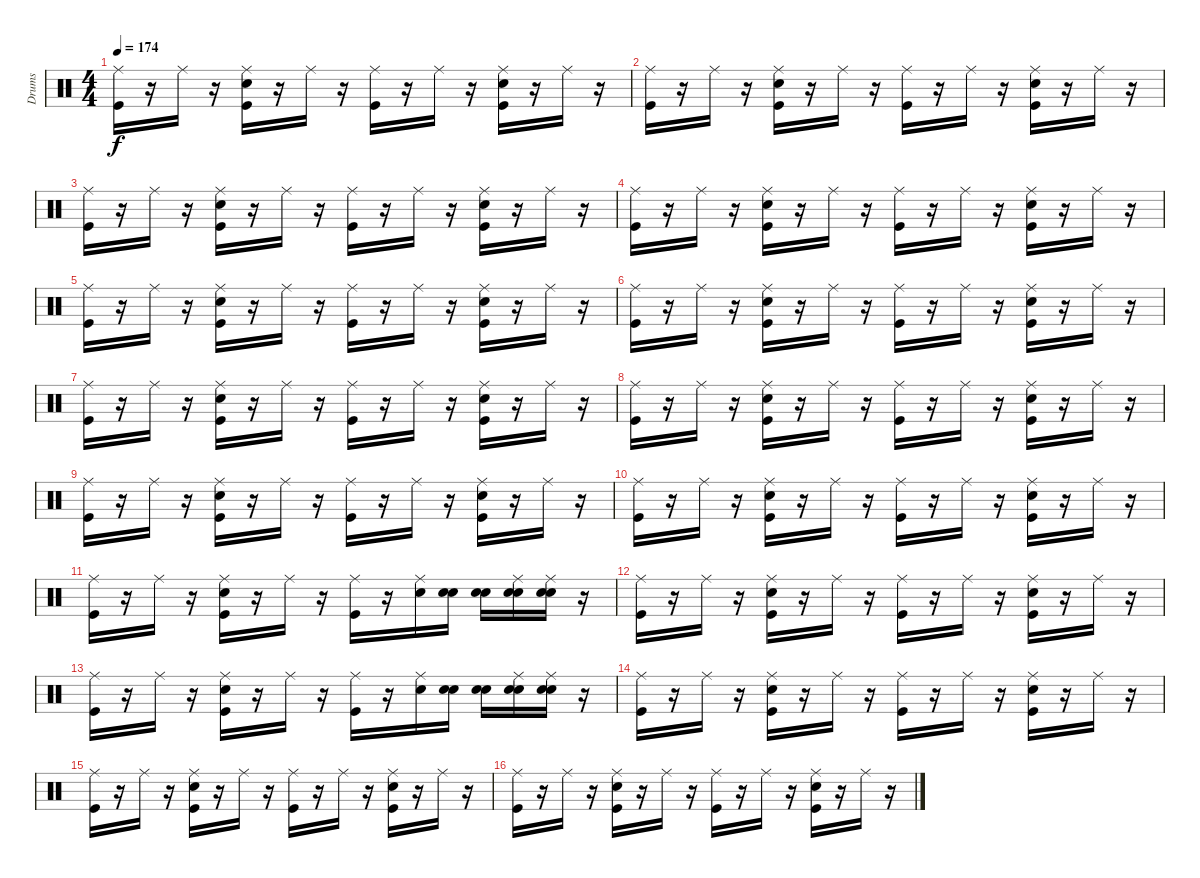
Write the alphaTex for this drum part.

\track ("Drums" "Drums") {instrument percussion}
\staff {score}
\articulation defaults
\ts (4 4)
\tempo 174
\clef neutral
\ks c
("Kick (hit)" "Ride (middle)").16{dy f} r.16 "Ride (middle)".16 r.16 ("Kick (hit)" "Snare (hit) 2" "Ride (middle)").16 r.16 "Ride (middle)".16 r.16 ("Kick (hit)" "Ride (middle)").16 r.16 "Ride (middle)".16 r.16 ("Kick (hit)" "Snare (hit) 2" "Ride (middle)").16 r.16 "Ride (middle)".16 r.16 |
("Kick (hit)" "Ride (middle)").16 r.16 "Ride (middle)".16 r.16 ("Kick (hit)" "Snare (hit) 2" "Ride (middle)").16 r.16 "Ride (middle)".16 r.16 ("Kick (hit)" "Ride (middle)").16 r.16 "Ride (middle)".16 r.16 ("Kick (hit)" "Snare (hit) 2" "Ride (middle)").16 r.16 "Ride (middle)".16 r.16 |
("Kick (hit)" "Ride (middle)").16 r.16 "Ride (middle)".16 r.16 ("Kick (hit)" "Snare (hit) 2" "Ride (middle)").16 r.16 "Ride (middle)".16 r.16 ("Kick (hit)" "Ride (middle)").16 r.16 "Ride (middle)".16 r.16 ("Kick (hit)" "Snare (hit) 2" "Ride (middle)").16 r.16 "Ride (middle)".16 r.16 |
("Kick (hit)" "Ride (middle)").16 r.16 "Ride (middle)".16 r.16 ("Kick (hit)" "Snare (hit) 2" "Ride (middle)").16 r.16 "Ride (middle)".16 r.16 ("Kick (hit)" "Ride (middle)").16 r.16 "Ride (middle)".16 r.16 ("Kick (hit)" "Snare (hit) 2" "Ride (middle)").16 r.16 "Ride (middle)".16 r.16 |
("Kick (hit)" "Ride (middle)").16 r.16 "Ride (middle)".16 r.16 ("Kick (hit)" "Snare (hit) 2" "Ride (middle)").16 r.16 "Ride (middle)".16 r.16 ("Kick (hit)" "Ride (middle)").16 r.16 "Ride (middle)".16 r.16 ("Kick (hit)" "Snare (hit) 2" "Ride (middle)").16 r.16 "Ride (middle)".16 r.16 |
("Kick (hit)" "Ride (middle)").16 r.16 "Ride (middle)".16 r.16 ("Kick (hit)" "Snare (hit) 2" "Ride (middle)").16 r.16 "Ride (middle)".16 r.16 ("Kick (hit)" "Ride (middle)").16 r.16 "Ride (middle)".16 r.16 ("Kick (hit)" "Snare (hit) 2" "Ride (middle)").16 r.16 "Ride (middle)".16 r.16 |
("Kick (hit)" "Ride (middle)").16 r.16 "Ride (middle)".16 r.16 ("Kick (hit)" "Snare (hit) 2" "Ride (middle)").16 r.16 "Ride (middle)".16 r.16 ("Kick (hit)" "Ride (middle)").16 r.16 "Ride (middle)".16 r.16 ("Kick (hit)" "Snare (hit) 2" "Ride (middle)").16 r.16 "Ride (middle)".16 r.16 |
("Kick (hit)" "Ride (middle)").16 r.16 "Ride (middle)".16 r.16 ("Kick (hit)" "Snare (hit) 2" "Ride (middle)").16 r.16 "Ride (middle)".16 r.16 ("Kick (hit)" "Ride (middle)").16 r.16 "Ride (middle)".16 r.16 ("Kick (hit)" "Snare (hit) 2" "Ride (middle)").16 r.16 "Ride (middle)".16 r.16 |
("Kick (hit)" "Ride (middle)").16 r.16 "Ride (middle)".16 r.16 ("Kick (hit)" "Snare (hit) 2" "Ride (middle)").16 r.16 "Ride (middle)".16 r.16 ("Kick (hit)" "Ride (middle)").16 r.16 "Ride (middle)".16 r.16 ("Kick (hit)" "Snare (hit) 2" "Ride (middle)").16 r.16 "Ride (middle)".16 r.16 |
("Kick (hit)" "Ride (middle)").16 r.16 "Ride (middle)".16 r.16 ("Kick (hit)" "Snare (hit) 2" "Ride (middle)").16 r.16 "Ride (middle)".16 r.16 ("Kick (hit)" "Ride (middle)").16 r.16 "Ride (middle)".16 r.16 ("Kick (hit)" "Snare (hit) 2" "Ride (middle)").16 r.16 "Ride (middle)".16 r.16 |
("Kick (hit)" "Ride (middle)").16 r.16 "Ride (middle)".16 r.16 ("Kick (hit)" "Snare (hit) 2" "Ride (middle)").16 r.16 "Ride (middle)".16 r.16 ("Kick (hit)" "Ride (middle)").16 r.16 ("Snare (hit) 2" "Ride (middle)").16 ("Snare (hit)" "Snare (hit) 2").16 ("Snare (hit)" "Snare (hit) 2").16 ("Snare (hit)" "Snare (hit) 2" "Ride (middle)").16 ("Snare (hit)" "Snare (hit) 2" "Ride (middle)").16 r.16 |
("Kick (hit)" "Ride (middle)").16 r.16 "Ride (middle)".16 r.16 ("Kick (hit)" "Snare (hit) 2" "Ride (middle)").16 r.16 "Ride (middle)".16 r.16 ("Kick (hit)" "Ride (middle)").16 r.16 "Ride (middle)".16 r.16 ("Snare (hit) 2" "Kick (hit)" "Ride (middle)").16 r.16 "Ride (middle)".16 r.16 |
("Kick (hit)" "Ride (middle)").16 r.16 "Ride (middle)".16 r.16 ("Kick (hit)" "Snare (hit) 2" "Ride (middle)").16 r.16 "Ride (middle)".16 r.16 ("Kick (hit)" "Ride (middle)").16 r.16 ("Snare (hit) 2" "Ride (middle)").16 ("Snare (hit)" "Snare (hit) 2").16 ("Snare (hit)" "Snare (hit) 2").16 ("Snare (hit)" "Snare (hit) 2" "Ride (middle)").16 ("Snare (hit)" "Snare (hit) 2" "Ride (middle)").16 r.16 |
("Kick (hit)" "Ride (middle)").16 r.16 "Ride (middle)".16 r.16 ("Kick (hit)" "Snare (hit) 2" "Ride (middle)").16 r.16 "Ride (middle)".16 r.16 ("Kick (hit)" "Ride (middle)").16 r.16 "Ride (middle)".16 r.16 ("Kick (hit)" "Snare (hit) 2" "Ride (middle)").16 r.16 "Ride (middle)".16 r.16 |
("Kick (hit)" "Ride (middle)").16 r.16 "Ride (middle)".16 r.16 ("Kick (hit)" "Snare (hit) 2" "Ride (middle)").16 r.16 "Ride (middle)".16 r.16 ("Kick (hit)" "Ride (middle)").16 r.16 "Ride (middle)".16 r.16 ("Kick (hit)" "Snare (hit) 2" "Ride (middle)").16 r.16 "Ride (middle)".16 r.16 |
("Kick (hit)" "Ride (middle)").16 r.16 "Ride (middle)".16 r.16 ("Kick (hit)" "Snare (hit) 2" "Ride (middle)").16 r.16 "Ride (middle)".16 r.16 ("Kick (hit)" "Ride (middle)").16 r.16 "Ride (middle)".16 r.16 ("Kick (hit)" "Snare (hit) 2" "Ride (middle)").16 r.16 "Ride (middle)".16 r.16
